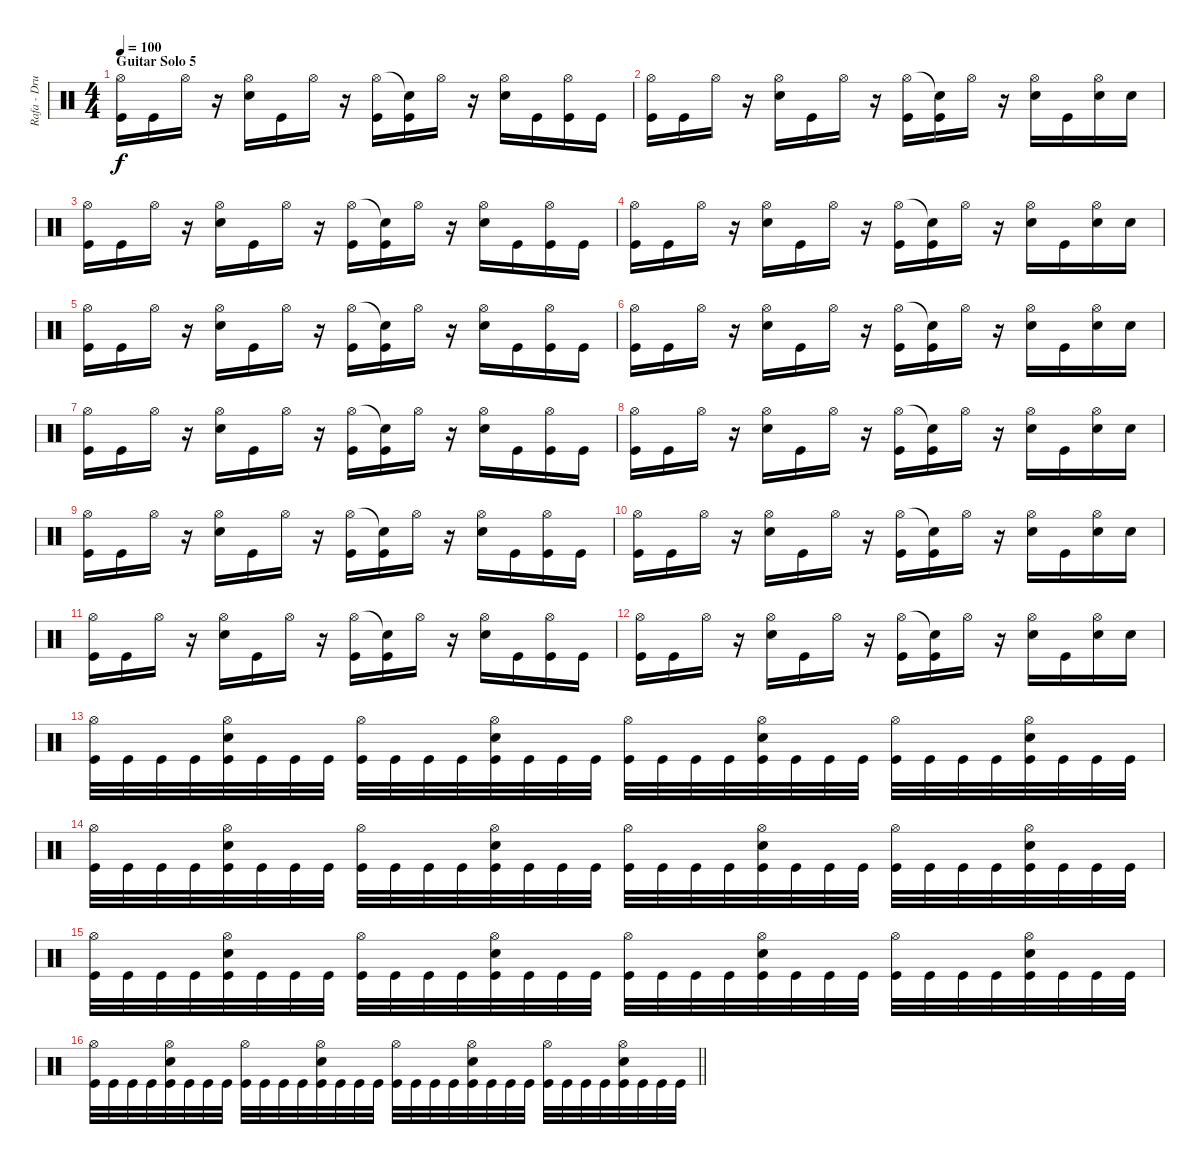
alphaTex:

\track ("Rafa - Drums" "Rafa - Dru") {instrument percussion}
\staff {score}
\articulation defaults
\ts (4 4)
\section ("" "Guitar Solo 5")
\tempo 100
\clef neutral
\ks c
("Hi-Hat (open)" "Kick (hit)").16{dy f} "Kick (hit)".16 "Hi-Hat (open)".16 r.16 ("Hi-Hat (open)" "Electric Snare (hit)").16 "Kick (hit)".16 "Hi-Hat (open)".16 r.16 ("Hi-Hat (open)" "Kick (hit)").16 ("Snare (hit)"{t} "Kick (hit)").16 "Hi-Hat (open)".16 r.16 ("Hi-Hat (open)" "Electric Snare (hit)").16 "Kick (hit)".16 ("Hi-Hat (open)" "Kick (hit)").16 "Kick (hit)".16 |
("Hi-Hat (open)" "Kick (hit)").16 "Kick (hit)".16 "Hi-Hat (open)".16 r.16 ("Hi-Hat (open)" "Electric Snare (hit)").16 "Kick (hit)".16 "Hi-Hat (open)".16 r.16 ("Hi-Hat (open)" "Kick (hit)").16 ("Snare (hit)"{t} "Kick (hit)").16 "Hi-Hat (open)".16 r.16 ("Hi-Hat (open)" "Electric Snare (hit)").16 "Kick (hit)".16 ("Hi-Hat (open)" "Electric Snare (hit)").16 "Electric Snare (hit)".16 |
("Hi-Hat (open)" "Kick (hit)").16 "Kick (hit)".16 "Hi-Hat (open)".16 r.16 ("Hi-Hat (open)" "Electric Snare (hit)").16 "Kick (hit)".16 "Hi-Hat (open)".16 r.16 ("Hi-Hat (open)" "Kick (hit)").16 ("Snare (hit)"{t} "Kick (hit)").16 "Hi-Hat (open)".16 r.16 ("Hi-Hat (open)" "Electric Snare (hit)").16 "Kick (hit)".16 ("Hi-Hat (open)" "Kick (hit)").16 "Kick (hit)".16 |
("Hi-Hat (open)" "Kick (hit)").16 "Kick (hit)".16 "Hi-Hat (open)".16 r.16 ("Hi-Hat (open)" "Electric Snare (hit)").16 "Kick (hit)".16 "Hi-Hat (open)".16 r.16 ("Hi-Hat (open)" "Kick (hit)").16 ("Snare (hit)"{t} "Kick (hit)").16 "Hi-Hat (open)".16 r.16 ("Hi-Hat (open)" "Electric Snare (hit)").16 "Kick (hit)".16 ("Hi-Hat (open)" "Electric Snare (hit)").16 "Electric Snare (hit)".16 |
("Hi-Hat (open)" "Kick (hit)").16 "Kick (hit)".16 "Hi-Hat (open)".16 r.16 ("Hi-Hat (open)" "Electric Snare (hit)").16 "Kick (hit)".16 "Hi-Hat (open)".16 r.16 ("Hi-Hat (open)" "Kick (hit)").16 ("Snare (hit)"{t} "Kick (hit)").16 "Hi-Hat (open)".16 r.16 ("Hi-Hat (open)" "Electric Snare (hit)").16 "Kick (hit)".16 ("Hi-Hat (open)" "Kick (hit)").16 "Kick (hit)".16 |
("Hi-Hat (open)" "Kick (hit)").16 "Kick (hit)".16 "Hi-Hat (open)".16 r.16 ("Hi-Hat (open)" "Electric Snare (hit)").16 "Kick (hit)".16 "Hi-Hat (open)".16 r.16 ("Hi-Hat (open)" "Kick (hit)").16 ("Snare (hit)"{t} "Kick (hit)").16 "Hi-Hat (open)".16 r.16 ("Hi-Hat (open)" "Electric Snare (hit)").16 "Kick (hit)".16 ("Hi-Hat (open)" "Electric Snare (hit)").16 "Electric Snare (hit)".16 |
("Hi-Hat (open)" "Kick (hit)").16 "Kick (hit)".16 "Hi-Hat (open)".16 r.16 ("Hi-Hat (open)" "Electric Snare (hit)").16 "Kick (hit)".16 "Hi-Hat (open)".16 r.16 ("Hi-Hat (open)" "Kick (hit)").16 ("Snare (hit)"{t} "Kick (hit)").16 "Hi-Hat (open)".16 r.16 ("Hi-Hat (open)" "Electric Snare (hit)").16 "Kick (hit)".16 ("Hi-Hat (open)" "Kick (hit)").16 "Kick (hit)".16 |
("Hi-Hat (open)" "Kick (hit)").16 "Kick (hit)".16 "Hi-Hat (open)".16 r.16 ("Hi-Hat (open)" "Electric Snare (hit)").16 "Kick (hit)".16 "Hi-Hat (open)".16 r.16 ("Hi-Hat (open)" "Kick (hit)").16 ("Snare (hit)"{t} "Kick (hit)").16 "Hi-Hat (open)".16 r.16 ("Hi-Hat (open)" "Electric Snare (hit)").16 "Kick (hit)".16 ("Hi-Hat (open)" "Electric Snare (hit)").16 "Electric Snare (hit)".16 |
("Hi-Hat (open)" "Kick (hit)").16 "Kick (hit)".16 "Hi-Hat (open)".16 r.16 ("Hi-Hat (open)" "Electric Snare (hit)").16 "Kick (hit)".16 "Hi-Hat (open)".16 r.16 ("Hi-Hat (open)" "Kick (hit)").16 ("Snare (hit)"{t} "Kick (hit)").16 "Hi-Hat (open)".16 r.16 ("Hi-Hat (open)" "Electric Snare (hit)").16 "Kick (hit)".16 ("Hi-Hat (open)" "Kick (hit)").16 "Kick (hit)".16 |
("Hi-Hat (open)" "Kick (hit)").16 "Kick (hit)".16 "Hi-Hat (open)".16 r.16 ("Hi-Hat (open)" "Electric Snare (hit)").16 "Kick (hit)".16 "Hi-Hat (open)".16 r.16 ("Hi-Hat (open)" "Kick (hit)").16 ("Snare (hit)"{t} "Kick (hit)").16 "Hi-Hat (open)".16 r.16 ("Hi-Hat (open)" "Electric Snare (hit)").16 "Kick (hit)".16 ("Hi-Hat (open)" "Electric Snare (hit)").16 "Electric Snare (hit)".16 |
("Hi-Hat (open)" "Kick (hit)").16 "Kick (hit)".16 "Hi-Hat (open)".16 r.16 ("Hi-Hat (open)" "Electric Snare (hit)").16 "Kick (hit)".16 "Hi-Hat (open)".16 r.16 ("Hi-Hat (open)" "Kick (hit)").16 ("Snare (hit)"{t} "Kick (hit)").16 "Hi-Hat (open)".16 r.16 ("Hi-Hat (open)" "Electric Snare (hit)").16 "Kick (hit)".16 ("Hi-Hat (open)" "Kick (hit)").16 "Kick (hit)".16 |
("Hi-Hat (open)" "Kick (hit)").16 "Kick (hit)".16 "Hi-Hat (open)".16 r.16 ("Hi-Hat (open)" "Electric Snare (hit)").16 "Kick (hit)".16 "Hi-Hat (open)".16 r.16 ("Hi-Hat (open)" "Kick (hit)").16 ("Snare (hit)"{t} "Kick (hit)").16 "Hi-Hat (open)".16 r.16 ("Hi-Hat (open)" "Electric Snare (hit)").16 "Kick (hit)".16 ("Hi-Hat (open)" "Electric Snare (hit)").16 "Electric Snare (hit)".16 |
("Hi-Hat (open)" "Kick (hit)").32 "Kick (hit)".32 "Kick (hit)".32 "Kick (hit)".32 ("Hi-Hat (open)" "Electric Snare (hit)" "Kick (hit)").32 "Kick (hit)".32 "Kick (hit)".32 "Kick (hit)".32 ("Hi-Hat (open)" "Kick (hit)").32 "Kick (hit)".32 "Kick (hit)".32 "Kick (hit)".32 ("Electric Snare (hit)" "Hi-Hat (open)" "Kick (hit)").32 "Kick (hit)".32 "Kick (hit)".32 "Kick (hit)".32 ("Hi-Hat (open)" "Kick (hit)").32 "Kick (hit)".32 "Kick (hit)".32 "Kick (hit)".32 ("Electric Snare (hit)" "Hi-Hat (open)" "Kick (hit)").32 "Kick (hit)".32 "Kick (hit)".32 "Kick (hit)".32 ("Hi-Hat (open)" "Kick (hit)").32 "Kick (hit)".32 "Kick (hit)".32 "Kick (hit)".32 ("Electric Snare (hit)" "Hi-Hat (open)" "Kick (hit)").32 "Kick (hit)".32 "Kick (hit)".32 "Kick (hit)".32 |
("Hi-Hat (open)" "Kick (hit)").32 "Kick (hit)".32 "Kick (hit)".32 "Kick (hit)".32 ("Hi-Hat (open)" "Electric Snare (hit)" "Kick (hit)").32 "Kick (hit)".32 "Kick (hit)".32 "Kick (hit)".32 ("Hi-Hat (open)" "Kick (hit)").32 "Kick (hit)".32 "Kick (hit)".32 "Kick (hit)".32 ("Electric Snare (hit)" "Hi-Hat (open)" "Kick (hit)").32 "Kick (hit)".32 "Kick (hit)".32 "Kick (hit)".32 ("Hi-Hat (open)" "Kick (hit)").32 "Kick (hit)".32 "Kick (hit)".32 "Kick (hit)".32 ("Electric Snare (hit)" "Hi-Hat (open)" "Kick (hit)").32 "Kick (hit)".32 "Kick (hit)".32 "Kick (hit)".32 ("Hi-Hat (open)" "Kick (hit)").32 "Kick (hit)".32 "Kick (hit)".32 "Kick (hit)".32 ("Electric Snare (hit)" "Hi-Hat (open)" "Kick (hit)").32 "Kick (hit)".32 "Kick (hit)".32 "Kick (hit)".32 |
("Hi-Hat (open)" "Kick (hit)").32 "Kick (hit)".32 "Kick (hit)".32 "Kick (hit)".32 ("Hi-Hat (open)" "Electric Snare (hit)" "Kick (hit)").32 "Kick (hit)".32 "Kick (hit)".32 "Kick (hit)".32 ("Hi-Hat (open)" "Kick (hit)").32 "Kick (hit)".32 "Kick (hit)".32 "Kick (hit)".32 ("Electric Snare (hit)" "Hi-Hat (open)" "Kick (hit)").32 "Kick (hit)".32 "Kick (hit)".32 "Kick (hit)".32 ("Hi-Hat (open)" "Kick (hit)").32 "Kick (hit)".32 "Kick (hit)".32 "Kick (hit)".32 ("Electric Snare (hit)" "Hi-Hat (open)" "Kick (hit)").32 "Kick (hit)".32 "Kick (hit)".32 "Kick (hit)".32 ("Hi-Hat (open)" "Kick (hit)").32 "Kick (hit)".32 "Kick (hit)".32 "Kick (hit)".32 ("Electric Snare (hit)" "Hi-Hat (open)" "Kick (hit)").32 "Kick (hit)".32 "Kick (hit)".32 "Kick (hit)".32 |
\barLineRight lightlight
("Hi-Hat (open)" "Kick (hit)").32 "Kick (hit)".32 "Kick (hit)".32 "Kick (hit)".32 ("Hi-Hat (open)" "Electric Snare (hit)" "Kick (hit)").32 "Kick (hit)".32 "Kick (hit)".32 "Kick (hit)".32 ("Hi-Hat (open)" "Kick (hit)").32 "Kick (hit)".32 "Kick (hit)".32 "Kick (hit)".32 ("Electric Snare (hit)" "Hi-Hat (open)" "Kick (hit)").32 "Kick (hit)".32 "Kick (hit)".32 "Kick (hit)".32 ("Hi-Hat (open)" "Kick (hit)").32 "Kick (hit)".32 "Kick (hit)".32 "Kick (hit)".32 ("Electric Snare (hit)" "Hi-Hat (open)" "Kick (hit)").32 "Kick (hit)".32 "Kick (hit)".32 "Kick (hit)".32 ("Hi-Hat (open)" "Kick (hit)").32 "Kick (hit)".32 "Kick (hit)".32 "Kick (hit)".32 ("Electric Snare (hit)" "Hi-Hat (open)" "Kick (hit)").32 "Kick (hit)".32 "Kick (hit)".32 "Kick (hit)".32
